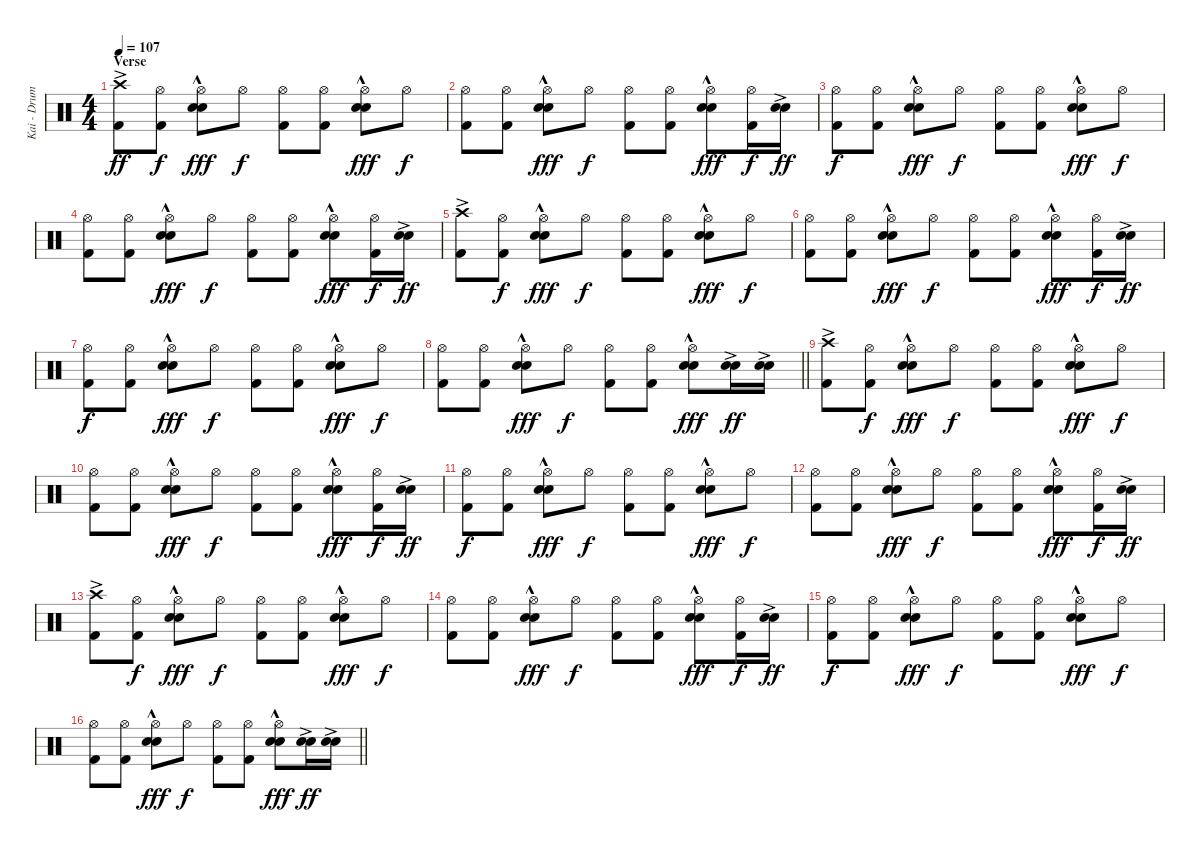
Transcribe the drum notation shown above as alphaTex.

\track ("Kai - Drums" "Kai - Drum") {instrument percussion}
\staff {score}
\articulation defaults
\ts (4 4)
\section ("" "Verse")
\tempo 107
\clef neutral
\ks c
("Crash high (hit)"{ac} "Kick (hit) 2").8{dy ff} ("Hi-Hat (open)" "Kick (hit) 2").8{dy f} ("Hi-Hat (open)" "Electric Snare (hit)"{hac} "Snare (hit) 2"{hac}).8{dy fff} "Hi-Hat (open)".8{dy f} ("Hi-Hat (open)" "Kick (hit) 2").8 ("Hi-Hat (open)" "Kick (hit) 2").8 ("Hi-Hat (open)" "Electric Snare (hit)"{hac} "Snare (hit) 2"{hac}).8{dy fff} "Hi-Hat (open)".8{dy f} |
("Hi-Hat (open)" "Kick (hit) 2").8 ("Hi-Hat (open)" "Kick (hit) 2").8 ("Hi-Hat (open)" "Electric Snare (hit)"{hac} "Snare (hit) 2"{hac}).8{dy fff} "Hi-Hat (open)".8{dy f} ("Hi-Hat (open)" "Kick (hit) 2").8 ("Hi-Hat (open)" "Kick (hit) 2").8 ("Hi-Hat (open)" "Electric Snare (hit)"{hac} "Snare (hit) 2"{hac}).8{dy fff} ("Hi-Hat (open)" "Kick (hit) 2").16{dy f} ("Electric Snare (hit)"{ac} "Snare (hit) 2"{ac}).16{dy ff} |
("Hi-Hat (open)" "Kick (hit) 2").8{dy f} ("Hi-Hat (open)" "Kick (hit) 2").8 ("Hi-Hat (open)" "Electric Snare (hit)"{hac} "Snare (hit) 2"{hac}).8{dy fff} "Hi-Hat (open)".8{dy f} ("Hi-Hat (open)" "Kick (hit) 2").8 ("Hi-Hat (open)" "Kick (hit) 2").8 ("Hi-Hat (open)" "Electric Snare (hit)"{hac} "Snare (hit) 2"{hac}).8{dy fff} "Hi-Hat (open)".8{dy f} |
("Hi-Hat (open)" "Kick (hit) 2").8 ("Hi-Hat (open)" "Kick (hit) 2").8 ("Hi-Hat (open)" "Electric Snare (hit)"{hac} "Snare (hit) 2"{hac}).8{dy fff} "Hi-Hat (open)".8{dy f} ("Hi-Hat (open)" "Kick (hit) 2").8 ("Hi-Hat (open)" "Kick (hit) 2").8 ("Hi-Hat (open)" "Electric Snare (hit)"{hac} "Snare (hit) 2"{hac}).8{dy fff} ("Hi-Hat (open)" "Kick (hit) 2").16{dy f} ("Electric Snare (hit)"{ac} "Snare (hit) 2"{ac}).16{dy ff} |
("Crash high (hit)"{ac} "Kick (hit) 2").8 ("Hi-Hat (open)" "Kick (hit) 2").8{dy f} ("Hi-Hat (open)" "Electric Snare (hit)"{hac} "Snare (hit) 2"{hac}).8{dy fff} "Hi-Hat (open)".8{dy f} ("Hi-Hat (open)" "Kick (hit) 2").8 ("Hi-Hat (open)" "Kick (hit) 2").8 ("Hi-Hat (open)" "Electric Snare (hit)"{hac} "Snare (hit) 2"{hac}).8{dy fff} "Hi-Hat (open)".8{dy f} |
("Hi-Hat (open)" "Kick (hit) 2").8 ("Hi-Hat (open)" "Kick (hit) 2").8 ("Hi-Hat (open)" "Electric Snare (hit)"{hac} "Snare (hit) 2"{hac}).8{dy fff} "Hi-Hat (open)".8{dy f} ("Hi-Hat (open)" "Kick (hit) 2").8 ("Hi-Hat (open)" "Kick (hit) 2").8 ("Hi-Hat (open)" "Electric Snare (hit)"{hac} "Snare (hit) 2"{hac}).8{dy fff} ("Hi-Hat (open)" "Kick (hit) 2").16{dy f} ("Electric Snare (hit)"{ac} "Snare (hit) 2"{ac}).16{dy ff} |
("Hi-Hat (open)" "Kick (hit) 2").8{dy f} ("Hi-Hat (open)" "Kick (hit) 2").8 ("Hi-Hat (open)" "Electric Snare (hit)"{hac} "Snare (hit) 2"{hac}).8{dy fff} "Hi-Hat (open)".8{dy f} ("Hi-Hat (open)" "Kick (hit) 2").8 ("Hi-Hat (open)" "Kick (hit) 2").8 ("Hi-Hat (open)" "Electric Snare (hit)"{hac} "Snare (hit) 2"{hac}).8{dy fff} "Hi-Hat (open)".8{dy f} |
\barLineRight lightlight
("Hi-Hat (open)" "Kick (hit) 2").8 ("Hi-Hat (open)" "Kick (hit) 2").8 ("Hi-Hat (open)" "Electric Snare (hit)"{hac} "Snare (hit) 2"{hac}).8{dy fff} "Hi-Hat (open)".8{dy f} ("Hi-Hat (open)" "Kick (hit) 2").8 ("Hi-Hat (open)" "Kick (hit) 2").8 ("Hi-Hat (open)" "Electric Snare (hit)"{hac} "Snare (hit) 2"{hac}).8{dy fff} ("Electric Snare (hit)"{ac} "Snare (hit) 2"{ac}).16{dy ff} ("Electric Snare (hit)"{ac} "Snare (hit) 2"{ac}).16 |
\section ("" "")
("Crash high (hit)"{ac} "Kick (hit) 2").8 ("Hi-Hat (open)" "Kick (hit) 2").8{dy f} ("Hi-Hat (open)" "Electric Snare (hit)"{hac} "Snare (hit) 2"{hac}).8{dy fff} "Hi-Hat (open)".8{dy f} ("Hi-Hat (open)" "Kick (hit) 2").8 ("Hi-Hat (open)" "Kick (hit) 2").8 ("Hi-Hat (open)" "Electric Snare (hit)"{hac} "Snare (hit) 2"{hac}).8{dy fff} "Hi-Hat (open)".8{dy f} |
("Hi-Hat (open)" "Kick (hit) 2").8 ("Hi-Hat (open)" "Kick (hit) 2").8 ("Hi-Hat (open)" "Electric Snare (hit)"{hac} "Snare (hit) 2"{hac}).8{dy fff} "Hi-Hat (open)".8{dy f} ("Hi-Hat (open)" "Kick (hit) 2").8 ("Hi-Hat (open)" "Kick (hit) 2").8 ("Hi-Hat (open)" "Electric Snare (hit)"{hac} "Snare (hit) 2"{hac}).8{dy fff} ("Hi-Hat (open)" "Kick (hit) 2").16{dy f} ("Electric Snare (hit)"{ac} "Snare (hit) 2"{ac}).16{dy ff} |
("Hi-Hat (open)" "Kick (hit) 2").8{dy f} ("Hi-Hat (open)" "Kick (hit) 2").8 ("Hi-Hat (open)" "Electric Snare (hit)"{hac} "Snare (hit) 2"{hac}).8{dy fff} "Hi-Hat (open)".8{dy f} ("Hi-Hat (open)" "Kick (hit) 2").8 ("Hi-Hat (open)" "Kick (hit) 2").8 ("Hi-Hat (open)" "Electric Snare (hit)"{hac} "Snare (hit) 2"{hac}).8{dy fff} "Hi-Hat (open)".8{dy f} |
("Hi-Hat (open)" "Kick (hit) 2").8 ("Hi-Hat (open)" "Kick (hit) 2").8 ("Hi-Hat (open)" "Electric Snare (hit)"{hac} "Snare (hit) 2"{hac}).8{dy fff} "Hi-Hat (open)".8{dy f} ("Hi-Hat (open)" "Kick (hit) 2").8 ("Hi-Hat (open)" "Kick (hit) 2").8 ("Hi-Hat (open)" "Electric Snare (hit)"{hac} "Snare (hit) 2"{hac}).8{dy fff} ("Hi-Hat (open)" "Kick (hit) 2").16{dy f} ("Electric Snare (hit)"{ac} "Snare (hit) 2"{ac}).16{dy ff} |
("Crash high (hit)"{ac} "Kick (hit) 2").8 ("Hi-Hat (open)" "Kick (hit) 2").8{dy f} ("Hi-Hat (open)" "Electric Snare (hit)"{hac} "Snare (hit) 2"{hac}).8{dy fff} "Hi-Hat (open)".8{dy f} ("Hi-Hat (open)" "Kick (hit) 2").8 ("Hi-Hat (open)" "Kick (hit) 2").8 ("Hi-Hat (open)" "Electric Snare (hit)"{hac} "Snare (hit) 2"{hac}).8{dy fff} "Hi-Hat (open)".8{dy f} |
("Hi-Hat (open)" "Kick (hit) 2").8 ("Hi-Hat (open)" "Kick (hit) 2").8 ("Hi-Hat (open)" "Electric Snare (hit)"{hac} "Snare (hit) 2"{hac}).8{dy fff} "Hi-Hat (open)".8{dy f} ("Hi-Hat (open)" "Kick (hit) 2").8 ("Hi-Hat (open)" "Kick (hit) 2").8 ("Hi-Hat (open)" "Electric Snare (hit)"{hac} "Snare (hit) 2"{hac}).8{dy fff} ("Hi-Hat (open)" "Kick (hit) 2").16{dy f} ("Electric Snare (hit)"{ac} "Snare (hit) 2"{ac}).16{dy ff} |
("Hi-Hat (open)" "Kick (hit) 2").8{dy f} ("Hi-Hat (open)" "Kick (hit) 2").8 ("Hi-Hat (open)" "Electric Snare (hit)"{hac} "Snare (hit) 2"{hac}).8{dy fff} "Hi-Hat (open)".8{dy f} ("Hi-Hat (open)" "Kick (hit) 2").8 ("Hi-Hat (open)" "Kick (hit) 2").8 ("Hi-Hat (open)" "Electric Snare (hit)"{hac} "Snare (hit) 2"{hac}).8{dy fff} "Hi-Hat (open)".8{dy f} |
\barLineRight lightlight
("Hi-Hat (open)" "Kick (hit) 2").8 ("Hi-Hat (open)" "Kick (hit) 2").8 ("Hi-Hat (open)" "Electric Snare (hit)"{hac} "Snare (hit) 2"{hac}).8{dy fff} "Hi-Hat (open)".8{dy f} ("Hi-Hat (open)" "Kick (hit) 2").8 ("Hi-Hat (open)" "Kick (hit) 2").8 ("Hi-Hat (open)" "Electric Snare (hit)"{hac} "Snare (hit) 2"{hac}).8{dy fff} ("Electric Snare (hit)"{ac} "Snare (hit) 2"{ac}).16{dy ff} ("Electric Snare (hit)"{ac} "Snare (hit) 2"{ac}).16
